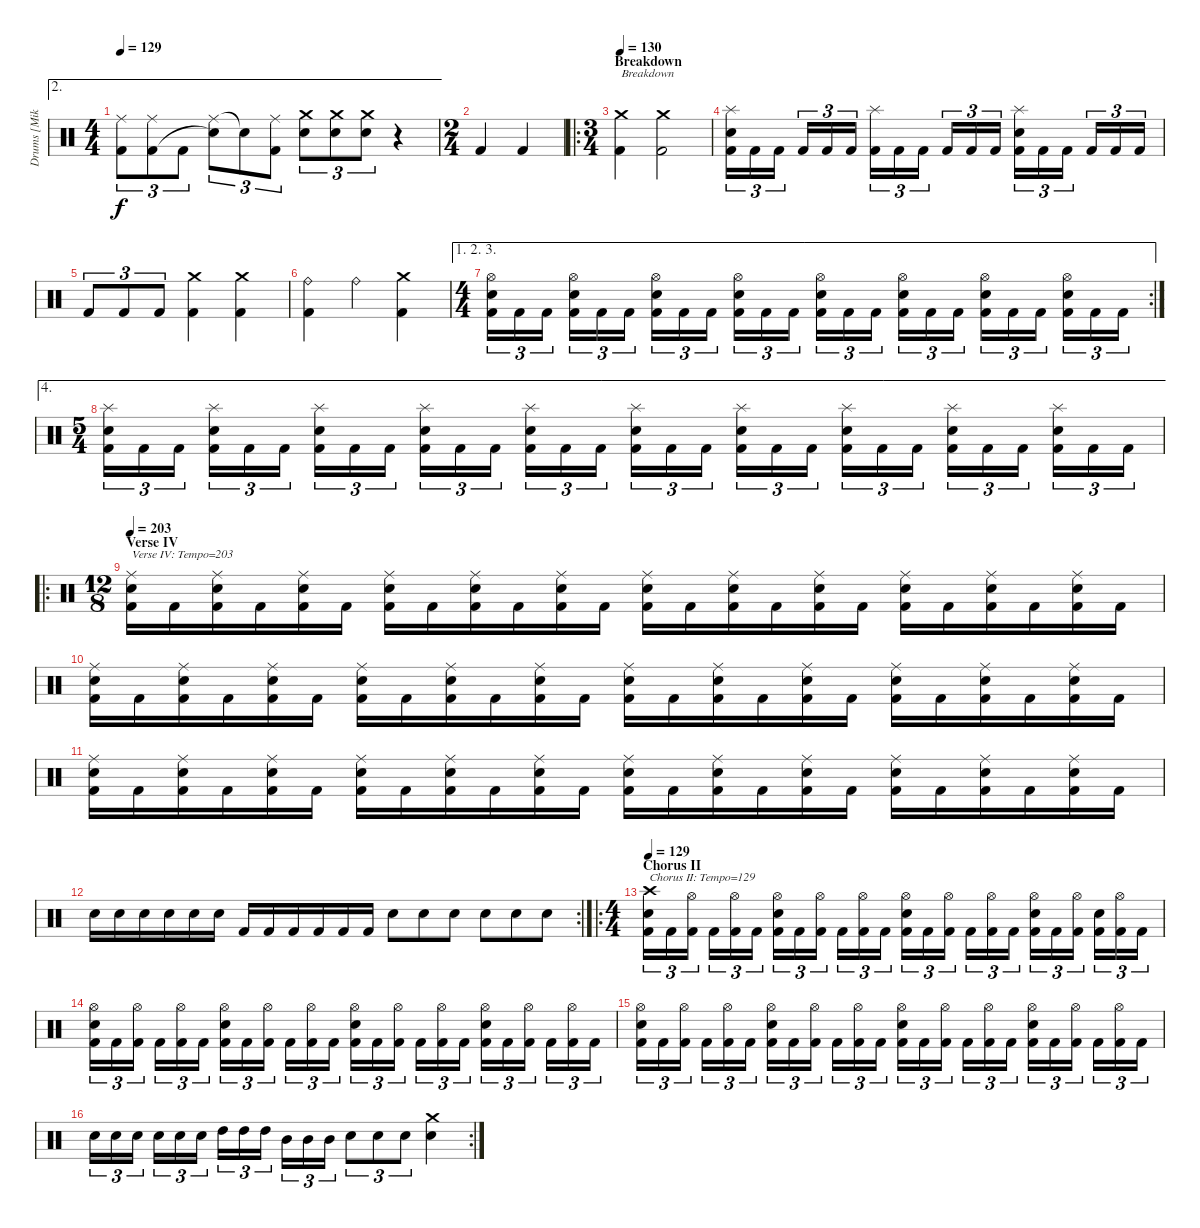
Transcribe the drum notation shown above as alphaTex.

\track ("Drums [Mike Smith]" "Drums [Mik") {instrument percussion}
\staff {score}
\articulation defaults
\ae 2
\ts (4 4)
\tempo 129
\clef neutral
\ks c
("Ride (middle)" "Kick (hit) 2").8{tu (3 2) dy f} ("Ride (middle)" "Kick (hit) 2").8{tu (3 2)} "Kick (hit) 2".8{tu (3 2)} ("Ride (middle)" "Snare (hit)"{t}).8{tu (3 2)} "Snare (hit)"{t}.8{tu (3 2)} ("Ride (middle)" "Kick (hit) 2").8{tu (3 2)} ("Crash medium (hit)" "Electric Snare (hit)").8{tu (3 2)} ("Crash medium (hit)" "Electric Snare (hit)").8{tu (3 2)} ("Crash medium (hit)" "Electric Snare (hit)").8{tu (3 2)} r.4 |
\ts (2 4)
"Kick (hit) 2".4 "Kick (hit) 2".4 |
\ro
\ts (3 4)
\section ("" "Breakdown")
\tempo 130
("Crash medium (hit)" "Kick (hit) 2").4{txt "Breakdown"} ("Crash medium (hit)" "Kick (hit) 2").2 |
("Splash (hit)" "Electric Snare (hit)" "Kick (hit) 2").16{tu (3 2)} "Kick (hit) 2".16{tu (3 2)} "Kick (hit) 2".16{tu (3 2)} "Kick (hit) 2".16{tu (3 2)} "Kick (hit) 2".16{tu (3 2)} "Kick (hit) 2".16{tu (3 2)} ("Splash (hit)" "Kick (hit) 2").16{tu (3 2)} "Kick (hit) 2".16{tu (3 2)} "Kick (hit) 2".16{tu (3 2)} "Kick (hit) 2".16{tu (3 2)} "Kick (hit) 2".16{tu (3 2)} "Kick (hit) 2".16{tu (3 2)} ("Splash (hit)" "Electric Snare (hit)" "Kick (hit) 2").16{tu (3 2)} "Kick (hit) 2".16{tu (3 2)} "Kick (hit) 2".16{tu (3 2)} "Kick (hit) 2".16{tu (3 2)} "Kick (hit) 2".16{tu (3 2)} "Kick (hit) 2".16{tu (3 2)} |
"Kick (hit) 2".8{tu (3 2)} "Kick (hit) 2".8{tu (3 2)} "Kick (hit) 2".8{tu (3 2)} ("Crash medium (hit)" "Kick (hit) 2").4 ("Crash medium (hit)" "Kick (hit) 2").4 |
("Ride (bell)" "Kick (hit) 2").4 "Ride (bell)".4 ("Crash medium (hit)" "Kick (hit) 2").4 |
\ae (1 2 3)
\rc 2
\ts (4 4)
("Hi-Hat (open)" "Electric Snare (hit)" "Kick (hit) 2").16{tu (3 2)} "Kick (hit) 2".16{tu (3 2)} "Kick (hit) 2".16{tu (3 2)} ("Hi-Hat (open)" "Electric Snare (hit)" "Kick (hit) 2").16{tu (3 2)} "Kick (hit) 2".16{tu (3 2)} "Kick (hit) 2".16{tu (3 2)} ("Hi-Hat (open)" "Electric Snare (hit)" "Kick (hit) 2").16{tu (3 2)} "Kick (hit) 2".16{tu (3 2)} "Kick (hit) 2".16{tu (3 2)} ("Hi-Hat (open)" "Electric Snare (hit)" "Kick (hit) 2").16{tu (3 2)} "Kick (hit) 2".16{tu (3 2)} "Kick (hit) 2".16{tu (3 2)} ("Hi-Hat (open)" "Electric Snare (hit)" "Kick (hit) 2").16{tu (3 2)} "Kick (hit) 2".16{tu (3 2)} "Kick (hit) 2".16{tu (3 2)} ("Hi-Hat (open)" "Electric Snare (hit)" "Kick (hit) 2").16{tu (3 2)} "Kick (hit) 2".16{tu (3 2)} "Kick (hit) 2".16{tu (3 2)} ("Hi-Hat (open)" "Electric Snare (hit)" "Kick (hit) 2").16{tu (3 2)} "Kick (hit) 2".16{tu (3 2)} "Kick (hit) 2".16{tu (3 2)} ("Hi-Hat (open)" "Electric Snare (hit)" "Kick (hit) 2").16{tu (3 2)} "Kick (hit) 2".16{tu (3 2)} "Kick (hit) 2".16{tu (3 2)} |
\ae 4
\ts (5 4)
("Splash (hit)" "Electric Snare (hit)" "Kick (hit) 2").16{tu (3 2)} "Kick (hit) 2".16{tu (3 2)} "Kick (hit) 2".16{tu (3 2)} ("Splash (hit)" "Electric Snare (hit)" "Kick (hit) 2").16{tu (3 2)} "Kick (hit) 2".16{tu (3 2)} "Kick (hit) 2".16{tu (3 2)} ("Splash (hit)" "Electric Snare (hit)" "Kick (hit) 2").16{tu (3 2)} "Kick (hit) 2".16{tu (3 2)} "Kick (hit) 2".16{tu (3 2)} ("Splash (hit)" "Electric Snare (hit)" "Kick (hit) 2").16{tu (3 2)} "Kick (hit) 2".16{tu (3 2)} "Kick (hit) 2".16{tu (3 2)} ("Splash (hit)" "Electric Snare (hit)" "Kick (hit) 2").16{tu (3 2)} "Kick (hit) 2".16{tu (3 2)} "Kick (hit) 2".16{tu (3 2)} ("Splash (hit)" "Electric Snare (hit)" "Kick (hit) 2").16{tu (3 2)} "Kick (hit) 2".16{tu (3 2)} "Kick (hit) 2".16{tu (3 2)} ("Splash (hit)" "Electric Snare (hit)" "Kick (hit) 2").16{tu (3 2)} "Kick (hit) 2".16{tu (3 2)} "Kick (hit) 2".16{tu (3 2)} ("Splash (hit)" "Electric Snare (hit)" "Kick (hit) 2").16{tu (3 2)} "Kick (hit) 2".16{tu (3 2)} "Kick (hit) 2".16{tu (3 2)} ("Splash (hit)" "Electric Snare (hit)" "Kick (hit) 2").16{tu (3 2)} "Kick (hit) 2".16{tu (3 2)} "Kick (hit) 2".16{tu (3 2)} ("Splash (hit)" "Electric Snare (hit)" "Kick (hit) 2").16{tu (3 2)} "Kick (hit) 2".16{tu (3 2)} "Kick (hit) 2".16{tu (3 2)} |
\ro
\ts (12 8)
\section ("" "Verse IV")
\tempo 203
("Ride (middle)" "Electric Snare (hit)" "Kick (hit) 2").16{txt "Verse IV: Tempo=203"} "Kick (hit) 2".16 ("Ride (middle)" "Electric Snare (hit)" "Kick (hit) 2").16 "Kick (hit) 2".16 ("Ride (middle)" "Electric Snare (hit)" "Kick (hit) 2").16 "Kick (hit) 2".16 ("Ride (middle)" "Electric Snare (hit)" "Kick (hit) 2").16 "Kick (hit) 2".16 ("Ride (middle)" "Electric Snare (hit)" "Kick (hit) 2").16 "Kick (hit) 2".16 ("Ride (middle)" "Electric Snare (hit)" "Kick (hit) 2").16 "Kick (hit) 2".16 ("Ride (middle)" "Electric Snare (hit)" "Kick (hit) 2").16 "Kick (hit) 2".16 ("Ride (middle)" "Electric Snare (hit)" "Kick (hit) 2").16 "Kick (hit) 2".16 ("Ride (middle)" "Electric Snare (hit)" "Kick (hit) 2").16 "Kick (hit) 2".16 ("Ride (middle)" "Electric Snare (hit)" "Kick (hit) 2").16 "Kick (hit) 2".16 ("Ride (middle)" "Electric Snare (hit)" "Kick (hit) 2").16 "Kick (hit) 2".16 ("Ride (middle)" "Electric Snare (hit)" "Kick (hit) 2").16 "Kick (hit) 2".16 |
("Ride (middle)" "Electric Snare (hit)" "Kick (hit) 2").16 "Kick (hit) 2".16 ("Ride (middle)" "Electric Snare (hit)" "Kick (hit) 2").16 "Kick (hit) 2".16 ("Ride (middle)" "Electric Snare (hit)" "Kick (hit) 2").16 "Kick (hit) 2".16 ("Ride (middle)" "Electric Snare (hit)" "Kick (hit) 2").16 "Kick (hit) 2".16 ("Ride (middle)" "Electric Snare (hit)" "Kick (hit) 2").16 "Kick (hit) 2".16 ("Ride (middle)" "Electric Snare (hit)" "Kick (hit) 2").16 "Kick (hit) 2".16 ("Ride (middle)" "Electric Snare (hit)" "Kick (hit) 2").16 "Kick (hit) 2".16 ("Ride (middle)" "Electric Snare (hit)" "Kick (hit) 2").16 "Kick (hit) 2".16 ("Ride (middle)" "Electric Snare (hit)" "Kick (hit) 2").16 "Kick (hit) 2".16 ("Ride (middle)" "Electric Snare (hit)" "Kick (hit) 2").16 "Kick (hit) 2".16 ("Ride (middle)" "Electric Snare (hit)" "Kick (hit) 2").16 "Kick (hit) 2".16 ("Ride (middle)" "Electric Snare (hit)" "Kick (hit) 2").16 "Kick (hit) 2".16 |
("Ride (middle)" "Electric Snare (hit)" "Kick (hit) 2").16 "Kick (hit) 2".16 ("Ride (middle)" "Electric Snare (hit)" "Kick (hit) 2").16 "Kick (hit) 2".16 ("Ride (middle)" "Electric Snare (hit)" "Kick (hit) 2").16 "Kick (hit) 2".16 ("Ride (middle)" "Electric Snare (hit)" "Kick (hit) 2").16 "Kick (hit) 2".16 ("Ride (middle)" "Electric Snare (hit)" "Kick (hit) 2").16 "Kick (hit) 2".16 ("Ride (middle)" "Electric Snare (hit)" "Kick (hit) 2").16 "Kick (hit) 2".16 ("Ride (middle)" "Electric Snare (hit)" "Kick (hit) 2").16 "Kick (hit) 2".16 ("Ride (middle)" "Electric Snare (hit)" "Kick (hit) 2").16 "Kick (hit) 2".16 ("Ride (middle)" "Electric Snare (hit)" "Kick (hit) 2").16 "Kick (hit) 2".16 ("Ride (middle)" "Electric Snare (hit)" "Kick (hit) 2").16 "Kick (hit) 2".16 ("Ride (middle)" "Electric Snare (hit)" "Kick (hit) 2").16 "Kick (hit) 2".16 ("Ride (middle)" "Electric Snare (hit)" "Kick (hit) 2").16 "Kick (hit) 2".16 |
\rc 2 "Electric Snare (hit)".16 "Electric Snare (hit)".16 "Electric Snare (hit)".16 "Electric Snare (hit)".16 "Electric Snare (hit)".16 "Electric Snare (hit)".16 "Kick (hit) 2".16 "Kick (hit) 2".16 "Kick (hit) 2".16 "Kick (hit) 2".16 "Kick (hit) 2".16 "Kick (hit) 2".16 "Electric Snare (hit)".8 "Electric Snare (hit)".8 "Electric Snare (hit)".8 "Electric Snare (hit)".8 "Electric Snare (hit)".8 "Electric Snare (hit)".8
|
\ro
\ts (4 4)
\section ("" "Chorus II")
\tempo 129
("Crash high (hit)" "Electric Snare (hit)" "Kick (hit) 2").16{tu (3 2) txt "Chorus II: Tempo=129"} "Kick (hit) 2".16{tu (3 2)} ("Hi-Hat (open)" "Kick (hit) 2").16{tu (3 2)} "Kick (hit) 2".16{tu (3 2)} ("Hi-Hat (open)" "Kick (hit) 2").16{tu (3 2)} "Kick (hit) 2".16{tu (3 2)} ("Hi-Hat (open)" "Electric Snare (hit)" "Kick (hit) 2").16{tu (3 2)} "Kick (hit) 2".16{tu (3 2)} ("Hi-Hat (open)" "Kick (hit) 2").16{tu (3 2)} "Kick (hit) 2".16{tu (3 2)} ("Hi-Hat (open)" "Kick (hit) 2").16{tu (3 2)} "Kick (hit) 2".16{tu (3 2)} ("Hi-Hat (open)" "Electric Snare (hit)" "Kick (hit) 2").16{tu (3 2)} "Kick (hit) 2".16{tu (3 2)} ("Hi-Hat (open)" "Kick (hit) 2").16{tu (3 2)} "Kick (hit) 2".16{tu (3 2)} ("Hi-Hat (open)" "Kick (hit) 2").16{tu (3 2)} "Kick (hit) 2".16{tu (3 2)} ("Hi-Hat (open)" "Electric Snare (hit)" "Kick (hit) 2").16{tu (3 2)} "Kick (hit) 2".16{tu (3 2)} ("Hi-Hat (open)" "Kick (hit) 2").16{tu (3 2)} ("Electric Snare (hit)" "Kick (hit) 2").16{tu (3 2)} ("Hi-Hat (open)" "Kick (hit) 2").16{tu (3 2)} "Kick (hit) 2".16{tu (3 2)} |
("Hi-Hat (open)" "Electric Snare (hit)" "Kick (hit) 2").16{tu (3 2)} "Kick (hit) 2".16{tu (3 2)} ("Hi-Hat (open)" "Kick (hit) 2").16{tu (3 2)} "Kick (hit) 2".16{tu (3 2)} ("Hi-Hat (open)" "Kick (hit) 2").16{tu (3 2)} "Kick (hit) 2".16{tu (3 2)} ("Hi-Hat (open)" "Electric Snare (hit)" "Kick (hit) 2").16{tu (3 2)} "Kick (hit) 2".16{tu (3 2)} ("Hi-Hat (open)" "Kick (hit) 2").16{tu (3 2)} "Kick (hit) 2".16{tu (3 2)} ("Hi-Hat (open)" "Kick (hit) 2").16{tu (3 2)} "Kick (hit) 2".16{tu (3 2)} ("Hi-Hat (open)" "Electric Snare (hit)" "Kick (hit) 2").16{tu (3 2)} "Kick (hit) 2".16{tu (3 2)} ("Hi-Hat (open)" "Kick (hit) 2").16{tu (3 2)} "Kick (hit) 2".16{tu (3 2)} ("Hi-Hat (open)" "Kick (hit) 2").16{tu (3 2)} "Kick (hit) 2".16{tu (3 2)} ("Hi-Hat (open)" "Electric Snare (hit)" "Kick (hit) 2").16{tu (3 2)} "Kick (hit) 2".16{tu (3 2)} ("Hi-Hat (open)" "Kick (hit) 2").16{tu (3 2)} "Kick (hit) 2".16{tu (3 2)} ("Hi-Hat (open)" "Kick (hit) 2").16{tu (3 2)} "Kick (hit) 2".16{tu (3 2)} |
("Hi-Hat (open)" "Electric Snare (hit)" "Kick (hit) 2").16{tu (3 2)} "Kick (hit) 2".16{tu (3 2)} ("Hi-Hat (open)" "Kick (hit) 2").16{tu (3 2)} "Kick (hit) 2".16{tu (3 2)} ("Hi-Hat (open)" "Kick (hit) 2").16{tu (3 2)} "Kick (hit) 2".16{tu (3 2)} ("Hi-Hat (open)" "Electric Snare (hit)" "Kick (hit) 2").16{tu (3 2)} "Kick (hit) 2".16{tu (3 2)} ("Hi-Hat (open)" "Kick (hit) 2").16{tu (3 2)} "Kick (hit) 2".16{tu (3 2)} ("Hi-Hat (open)" "Kick (hit) 2").16{tu (3 2)} "Kick (hit) 2".16{tu (3 2)} ("Hi-Hat (open)" "Electric Snare (hit)" "Kick (hit) 2").16{tu (3 2)} "Kick (hit) 2".16{tu (3 2)} ("Hi-Hat (open)" "Kick (hit) 2").16{tu (3 2)} "Kick (hit) 2".16{tu (3 2)} ("Hi-Hat (open)" "Kick (hit) 2").16{tu (3 2)} "Kick (hit) 2".16{tu (3 2)} ("Hi-Hat (open)" "Electric Snare (hit)" "Kick (hit) 2").16{tu (3 2)} "Kick (hit) 2".16{tu (3 2)} ("Hi-Hat (open)" "Kick (hit) 2").16{tu (3 2)} "Kick (hit) 2".16{tu (3 2)} ("Hi-Hat (open)" "Kick (hit) 2").16{tu (3 2)} "Kick (hit) 2".16{tu (3 2)} |
\rc 2 "Electric Snare (hit)".16{tu (3 2)} "Electric Snare (hit)".16{tu (3 2)} "Electric Snare (hit)".16{tu (3 2)} "Electric Snare (hit)".16{tu (3 2)} "Electric Snare (hit)".16{tu (3 2)} "Electric Snare (hit)".16{tu (3 2)} "High Tom (hit)".16{tu (3 2)} "High Tom (hit)".16{tu (3 2)} "High Tom (hit)".16{tu (3 2)} "Mid Tom (hit)".16{tu (3 2)} "Mid Tom (hit)".16{tu (3 2)} "Mid Tom (hit)".16{tu (3 2)} "Electric Snare (hit)".8{tu (3 2)} "Electric Snare (hit)".8{tu (3 2)} "Electric Snare (hit)".8{tu (3 2)}
("Crash medium (hit)" "Electric Snare (hit)").4
